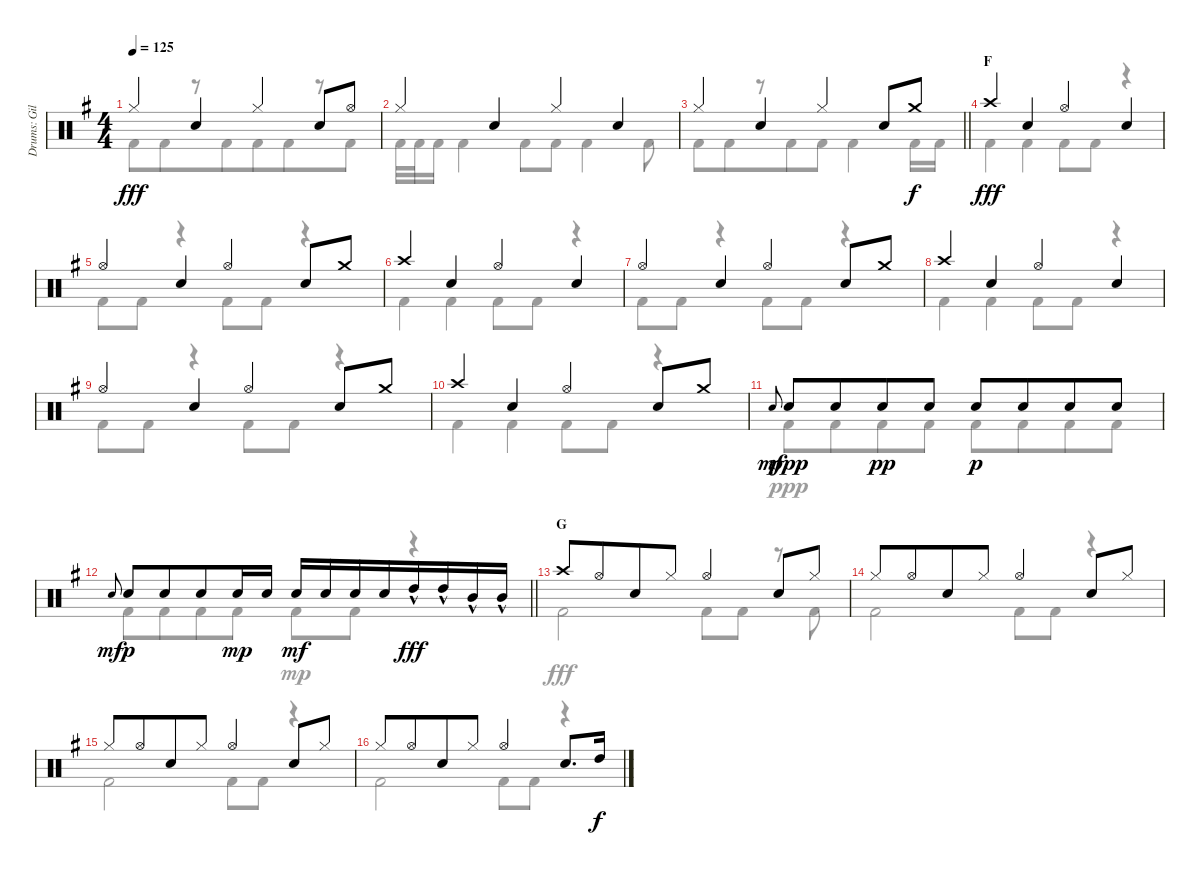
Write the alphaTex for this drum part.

\track ("Drums: Gil" "Drums: Gil") {instrument percussion}
\staff {score}
\articulation defaults
\voice
\ts (4 4)
\tempo 125
\clef neutral
\ks g "Hi-Hat (closed)".4{dy fff} "Electric Snare (hit)".4 "Hi-Hat (closed)".4 "Electric Snare (hit)".8 "Hi-Hat (open)".8
|
"Hi-Hat (closed)".4 "Electric Snare (hit)".4 "Hi-Hat (closed)".4 "Electric Snare (hit)".4 |
\barLineRight lightlight "Hi-Hat (closed)".4 "Electric Snare (hit)".4 "Hi-Hat (closed)".4 "Electric Snare (hit)".8 "Crash medium (hit)".8{dy f}
|
\section ("" "F")
"Crash high (hit)".4{dy fff} "Snare (hit) 2".4 "Hi-Hat (open)".4 "Snare (hit) 2".4 |
"Hi-Hat (open)".4 "Snare (hit) 2".4 "Hi-Hat (open)".4 "Snare (hit) 2".8 "Crash medium (hit)".8 |
"Crash high (hit)".4 "Snare (hit) 2".4 "Hi-Hat (open)".4 "Snare (hit) 2".4 |
"Hi-Hat (open)".4 "Snare (hit) 2".4 "Hi-Hat (open)".4 "Snare (hit) 2".8 "Crash medium (hit)".8 |
"Crash high (hit)".4 "Snare (hit) 2".4 "Hi-Hat (open)".4 "Snare (hit) 2".4 |
"Hi-Hat (open)".4 "Snare (hit) 2".4 "Hi-Hat (open)".4 "Snare (hit) 2".8 "Crash medium (hit)".8 |
"Crash high (hit)".4 "Snare (hit) 2".4 "Hi-Hat (open)".4 "Snare (hit) 2".8 "Crash medium (hit)".8 |
"Electric Snare (hit)".8{gr onbeat dy mf} "Snare (hit) 2".8{dy ppp beam merge} "Snare (hit) 2".8{beam merge} "Snare (hit) 2".8{dy pp} "Snare (hit) 2".8 "Snare (hit) 2".8{dy p beam merge} "Snare (hit) 2".8{beam merge} "Snare (hit) 2".8 "Snare (hit) 2".8 |
\barLineRight lightlight "Electric Snare (hit)".8{gr onbeat dy mf} "Snare (hit) 2".8{dy p} "Snare (hit) 2".8{beam merge} "Snare (hit) 2".8 "Snare (hit) 2".16{dy mp} "Snare (hit) 2".16 "Snare (hit) 2".16{dy mf} "Snare (hit) 2".16 "Snare (hit) 2".16 "Snare (hit) 2".16{beam merge} "High Tom (hit)"{hac}.16{dy fff} "High Tom (hit)"{hac}.16 "Mid Tom (hit)"{hac}.16 "Mid Tom (hit)"{hac}.16
|
\section ("" "G")
"Crash high (hit)".8 "Hi-Hat (open)".8{beam merge} "Snare (hit) 2".8 "Hi-Hat (closed)".8 "Hi-Hat (open)".4 "Snare (hit) 2".8 "Hi-Hat (closed)".8 |
"Hi-Hat (closed)".8 "Hi-Hat (open)".8{beam merge} "Snare (hit) 2".8 "Hi-Hat (closed)".8 "Hi-Hat (open)".4 "Snare (hit) 2".8 "Hi-Hat (closed)".8 |
"Hi-Hat (closed)".8 "Hi-Hat (open)".8{beam merge} "Snare (hit) 2".8 "Hi-Hat (closed)".8 "Hi-Hat (open)".4 "Snare (hit) 2".8 "Hi-Hat (closed)".8 |
"Hi-Hat (closed)".8 "Hi-Hat (open)".8{beam merge} "Snare (hit) 2".8 "Hi-Hat (closed)".8 "Hi-Hat (open)".4 "Snare (hit) 2".8{d} "High Tom (hit)".16{dy f}
\voice
\clef neutral
\ottava regular
\simile none
\ks g "Kick (hit) 2".8{dy fff} "Kick (hit) 2".8{beam merge}
r.8 "Kick (hit) 2".8{beam merge} "Kick (hit) 2".8 "Kick (hit) 2".8{beam merge} r.8 "Kick (hit) 2".8 |
"Kick (hit) 2".32 "Kick (hit) 2".32 "Kick (hit) 2".16 "Kick (hit) 2".4 "Kick (hit) 2".8{beam merge} "Kick (hit) 2".8 "Kick (hit) 2".4 "Kick (hit) 2".8 |
\barLineRight lightlight "Kick (hit) 2".8 "Kick (hit) 2".8{beam merge}
r.8 "Kick (hit) 2".8{beam merge} "Kick (hit) 2".8 "Kick (hit) 2".4 "Kick (hit) 2".16 "Kick (hit) 2".16 |
"Kick (hit) 2".4 "Kick (hit) 2".4 "Kick (hit) 2".8{beam merge} "Kick (hit) 2".8 r.4 |
"Kick (hit) 2".8 "Kick (hit) 2".8 r.4 "Kick (hit) 2".8{beam merge} "Kick (hit) 2".8 r.4 |
"Kick (hit) 2".4 "Kick (hit) 2".4 "Kick (hit) 2".8{beam merge} "Kick (hit) 2".8 r.4 |
"Kick (hit) 2".8 "Kick (hit) 2".8 r.4 "Kick (hit) 2".8{beam merge} "Kick (hit) 2".8 r.4 |
"Kick (hit) 2".4 "Kick (hit) 2".4 "Kick (hit) 2".8{beam merge} "Kick (hit) 2".8 r.4 |
"Kick (hit) 2".8 "Kick (hit) 2".8 r.4 "Kick (hit) 2".8{beam merge} "Kick (hit) 2".8 r.4 |
"Kick (hit) 2".4 "Kick (hit) 2".4{beam merge} "Kick (hit) 2".8 "Kick (hit) 2".8 r.4 |
"Kick (hit) 2".8{dy ppp beam merge} "Kick (hit) 2".8{beam merge} "Kick (hit) 2".8{dy pp beam merge} "Kick (hit) 2".8 "Kick (hit) 2".8{dy p beam merge} "Kick (hit) 2".8{beam merge} "Kick (hit) 2".8{beam merge} "Kick (hit) 2".8 |
\barLineRight lightlight "Kick (hit) 2".8{beam merge} "Kick (hit) 2".8{beam merge} "Kick (hit) 2".8{beam merge} "Kick (hit) 2".8 "Kick (hit) 2".8{dy mp beam merge} "Kick (hit) 2".8{beam merge}
r.4 |
"Kick (hit) 2".2{dy fff} "Kick (hit) 2".8 "Kick (hit) 2".8 r.8 "Kick (hit) 2".8 |
"Kick (hit) 2".2 "Kick (hit) 2".8 "Kick (hit) 2".8 r.4 |
"Kick (hit) 2".2 "Kick (hit) 2".8 "Kick (hit) 2".8 r.4 |
"Kick (hit) 2".2 "Kick (hit) 2".8 "Kick (hit) 2".8 r.4
